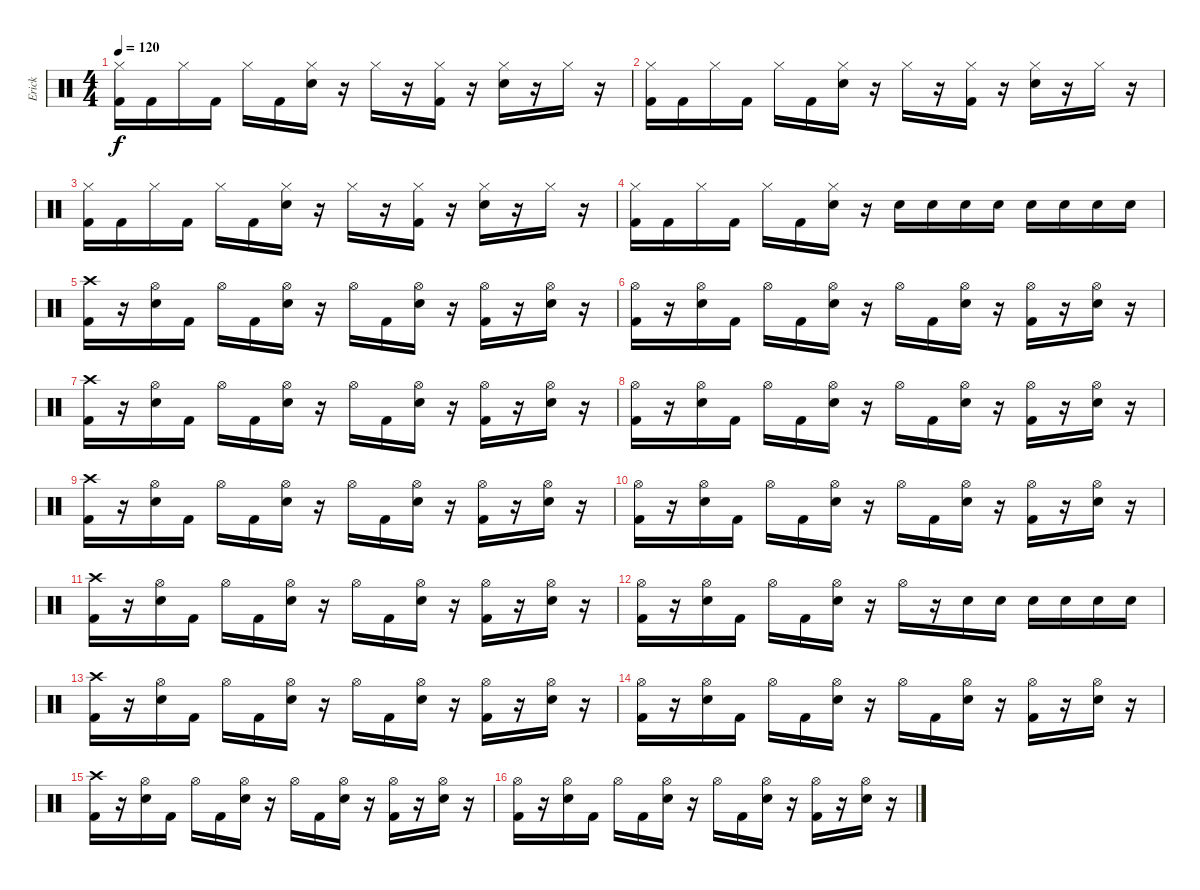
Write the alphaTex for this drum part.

\track ("Erick" "Erick") {instrument percussion}
\staff {score}
\articulation defaults
\ts (4 4)
\tempo 120
\clef neutral
\ks c
("Hi-Hat (closed)" "Kick (hit) 2").16{dy f} "Kick (hit) 2".16 "Hi-Hat (closed)".16 "Kick (hit) 2".16 "Hi-Hat (closed)".16 "Kick (hit) 2".16 ("Hi-Hat (closed)" "Electric Snare (hit)").16 r.16 "Hi-Hat (closed)".16 r.16 ("Hi-Hat (closed)" "Kick (hit) 2").16 r.16 ("Hi-Hat (closed)" "Electric Snare (hit)").16 r.16 "Hi-Hat (closed)".16 r.16 |
("Hi-Hat (closed)" "Kick (hit) 2").16 "Kick (hit) 2".16 "Hi-Hat (closed)".16 "Kick (hit) 2".16 "Hi-Hat (closed)".16 "Kick (hit) 2".16 ("Hi-Hat (closed)" "Electric Snare (hit)").16 r.16 "Hi-Hat (closed)".16 r.16 ("Hi-Hat (closed)" "Kick (hit) 2").16 r.16 ("Hi-Hat (closed)" "Electric Snare (hit)").16 r.16 "Hi-Hat (closed)".16 r.16 |
("Hi-Hat (closed)" "Kick (hit) 2").16 "Kick (hit) 2".16 "Hi-Hat (closed)".16 "Kick (hit) 2".16 "Hi-Hat (closed)".16 "Kick (hit) 2".16 ("Hi-Hat (closed)" "Electric Snare (hit)").16 r.16 "Hi-Hat (closed)".16 r.16 ("Hi-Hat (closed)" "Kick (hit) 2").16 r.16 ("Hi-Hat (closed)" "Electric Snare (hit)").16 r.16 "Hi-Hat (closed)".16 r.16 |
("Hi-Hat (closed)" "Kick (hit) 2").16 "Kick (hit) 2".16 "Hi-Hat (closed)".16 "Kick (hit) 2".16 "Hi-Hat (closed)".16 "Kick (hit) 2".16 ("Hi-Hat (closed)" "Electric Snare (hit)").16 r.16 "Electric Snare (hit)".16 "Electric Snare (hit)".16 "Electric Snare (hit)".16 "Electric Snare (hit)".16 "Electric Snare (hit)".16 "Electric Snare (hit)".16 "Electric Snare (hit)".16 "Electric Snare (hit)".16 |
("Crash high (hit)" "Kick (hit) 2").16 r.16 ("Hi-Hat (open)" "Electric Snare (hit)").16 "Kick (hit) 2".16 "Hi-Hat (open)".16 "Kick (hit) 2".16 ("Hi-Hat (open)" "Electric Snare (hit)").16 r.16 "Hi-Hat (open)".16 "Kick (hit) 2".16 ("Hi-Hat (open)" "Electric Snare (hit)").16 r.16 ("Hi-Hat (open)" "Kick (hit) 2").16 r.16 ("Hi-Hat (open)" "Electric Snare (hit)").16 r.16 |
("Hi-Hat (open)" "Kick (hit) 2").16 r.16 ("Hi-Hat (open)" "Electric Snare (hit)").16 "Kick (hit) 2".16 "Hi-Hat (open)".16 "Kick (hit) 2".16 ("Hi-Hat (open)" "Electric Snare (hit)").16 r.16 "Hi-Hat (open)".16 "Kick (hit) 2".16 ("Hi-Hat (open)" "Electric Snare (hit)").16 r.16 ("Hi-Hat (open)" "Kick (hit) 2").16 r.16 ("Hi-Hat (open)" "Electric Snare (hit)").16 r.16 |
("Crash high (hit)" "Kick (hit) 2").16 r.16 ("Hi-Hat (open)" "Electric Snare (hit)").16 "Kick (hit) 2".16 "Hi-Hat (open)".16 "Kick (hit) 2".16 ("Hi-Hat (open)" "Electric Snare (hit)").16 r.16 "Hi-Hat (open)".16 "Kick (hit) 2".16 ("Hi-Hat (open)" "Electric Snare (hit)").16 r.16 ("Hi-Hat (open)" "Kick (hit) 2").16 r.16 ("Hi-Hat (open)" "Electric Snare (hit)").16 r.16 |
("Hi-Hat (open)" "Kick (hit) 2").16 r.16 ("Hi-Hat (open)" "Electric Snare (hit)").16 "Kick (hit) 2".16 "Hi-Hat (open)".16 "Kick (hit) 2".16 ("Hi-Hat (open)" "Electric Snare (hit)").16 r.16 "Hi-Hat (open)".16 "Kick (hit) 2".16 ("Hi-Hat (open)" "Electric Snare (hit)").16 r.16 ("Hi-Hat (open)" "Kick (hit) 2").16 r.16 ("Hi-Hat (open)" "Electric Snare (hit)").16 r.16 |
("Crash high (hit)" "Kick (hit) 2").16 r.16 ("Hi-Hat (open)" "Electric Snare (hit)").16 "Kick (hit) 2".16 "Hi-Hat (open)".16 "Kick (hit) 2".16 ("Hi-Hat (open)" "Electric Snare (hit)").16 r.16 "Hi-Hat (open)".16 "Kick (hit) 2".16 ("Hi-Hat (open)" "Electric Snare (hit)").16 r.16 ("Hi-Hat (open)" "Kick (hit) 2").16 r.16 ("Hi-Hat (open)" "Electric Snare (hit)").16 r.16 |
("Hi-Hat (open)" "Kick (hit) 2").16 r.16 ("Hi-Hat (open)" "Electric Snare (hit)").16 "Kick (hit) 2".16 "Hi-Hat (open)".16 "Kick (hit) 2".16 ("Hi-Hat (open)" "Electric Snare (hit)").16 r.16 "Hi-Hat (open)".16 "Kick (hit) 2".16 ("Hi-Hat (open)" "Electric Snare (hit)").16 r.16 ("Hi-Hat (open)" "Kick (hit) 2").16 r.16 ("Hi-Hat (open)" "Electric Snare (hit)").16 r.16 |
("Crash high (hit)" "Kick (hit) 2").16 r.16 ("Hi-Hat (open)" "Electric Snare (hit)").16 "Kick (hit) 2".16 "Hi-Hat (open)".16 "Kick (hit) 2".16 ("Hi-Hat (open)" "Electric Snare (hit)").16 r.16 "Hi-Hat (open)".16 "Kick (hit) 2".16 ("Hi-Hat (open)" "Electric Snare (hit)").16 r.16 ("Hi-Hat (open)" "Kick (hit) 2").16 r.16 ("Hi-Hat (open)" "Electric Snare (hit)").16 r.16 |
("Hi-Hat (open)" "Kick (hit) 2").16 r.16 ("Hi-Hat (open)" "Electric Snare (hit)").16 "Kick (hit) 2".16 "Hi-Hat (open)".16 "Kick (hit) 2".16 ("Hi-Hat (open)" "Electric Snare (hit)").16 r.16 "Hi-Hat (open)".16 r.16 "Electric Snare (hit)".16 "Electric Snare (hit)".16 "Electric Snare (hit)".16 "Electric Snare (hit)".16 "Electric Snare (hit)".16 "Electric Snare (hit)".16 |
("Crash high (hit)" "Kick (hit) 2").16 r.16 ("Hi-Hat (open)" "Electric Snare (hit)").16 "Kick (hit) 2".16 "Hi-Hat (open)".16 "Kick (hit) 2".16 ("Hi-Hat (open)" "Electric Snare (hit)").16 r.16 "Hi-Hat (open)".16 "Kick (hit) 2".16 ("Hi-Hat (open)" "Electric Snare (hit)").16 r.16 ("Hi-Hat (open)" "Kick (hit) 2").16 r.16 ("Hi-Hat (open)" "Electric Snare (hit)").16 r.16 |
("Hi-Hat (open)" "Kick (hit) 2").16 r.16 ("Hi-Hat (open)" "Electric Snare (hit)").16 "Kick (hit) 2".16 "Hi-Hat (open)".16 "Kick (hit) 2".16 ("Hi-Hat (open)" "Electric Snare (hit)").16 r.16 "Hi-Hat (open)".16 "Kick (hit) 2".16 ("Hi-Hat (open)" "Electric Snare (hit)").16 r.16 ("Hi-Hat (open)" "Kick (hit) 2").16 r.16 ("Hi-Hat (open)" "Electric Snare (hit)").16 r.16 |
("Crash high (hit)" "Kick (hit) 2").16 r.16 ("Hi-Hat (open)" "Electric Snare (hit)").16 "Kick (hit) 2".16 "Hi-Hat (open)".16 "Kick (hit) 2".16 ("Hi-Hat (open)" "Electric Snare (hit)").16 r.16 "Hi-Hat (open)".16 "Kick (hit) 2".16 ("Hi-Hat (open)" "Electric Snare (hit)").16 r.16 ("Hi-Hat (open)" "Kick (hit) 2").16 r.16 ("Hi-Hat (open)" "Electric Snare (hit)").16 r.16 |
("Hi-Hat (open)" "Kick (hit) 2").16 r.16 ("Hi-Hat (open)" "Electric Snare (hit)").16 "Kick (hit) 2".16 "Hi-Hat (open)".16 "Kick (hit) 2".16 ("Hi-Hat (open)" "Electric Snare (hit)").16 r.16 "Hi-Hat (open)".16 "Kick (hit) 2".16 ("Hi-Hat (open)" "Electric Snare (hit)").16 r.16 ("Hi-Hat (open)" "Kick (hit) 2").16 r.16 ("Hi-Hat (open)" "Electric Snare (hit)").16 r.16
